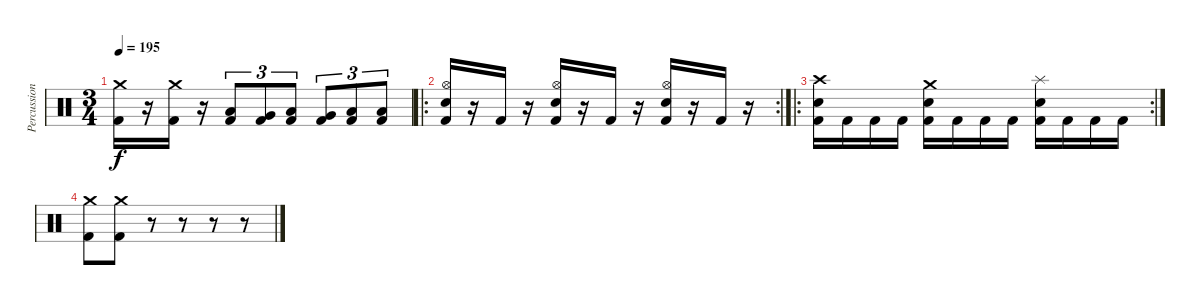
\track ("Percussion" "Percussion") {instrument percussion}
\staff {score}
\articulation defaults
\ts (3 4)
\tempo 195
\clef neutral
\ks c
("Crash medium (hit)" "Kick (hit) 2").16{dy f} r.16 ("Crash medium (hit)" "Kick (hit) 2").16 r.16 ("Low Tom (hit)" "Kick (hit) 2").8{tu (3 2)} ("Very Low Tom (hit)" "Kick (hit) 2").8{tu (3 2)} ("Low Floor Tom (hit)" "Kick (hit) 2").8{tu (3 2)} ("Very Low Tom (hit)" "Kick (hit) 2").8{tu (3 2)} ("Low Floor Tom (hit)" "Kick (hit) 2").8{tu (3 2)} ("Low Floor Tom (hit)" "Kick (hit) 2").8{tu (3 2)} |
\ro
\rc 2
("Hi-Hat (open)" "Electric Snare (hit)" "Kick (hit) 2").16 r.16 "Kick (hit) 2".16 r.16 ("Hi-Hat (open)" "Electric Snare (hit)" "Kick (hit) 2").16 r.16 "Kick (hit) 2".16 r.16 ("Hi-Hat (open)" "Electric Snare (hit)" "Kick (hit) 2").16 r.16 "Kick (hit) 2".16 r.16 |
\ro
\rc 2
("Crash high (hit)" "Electric Snare (hit)" "Kick (hit) 2").16 "Kick (hit) 2".16 "Kick (hit) 2".16 "Kick (hit) 2".16 ("Crash medium (hit)" "Electric Snare (hit)" "Kick (hit) 2").16 "Kick (hit) 2".16 "Kick (hit) 2".16 "Kick (hit) 2".16 ("Splash (hit)" "Electric Snare (hit)" "Kick (hit) 2").16 "Kick (hit) 2".16 "Kick (hit) 2".16 "Kick (hit) 2".16 |
("Crash medium (hit)" "Kick (hit) 2").8 ("Crash medium (hit)" "Kick (hit) 2").8 r.8 r.8 r.8 r.8
